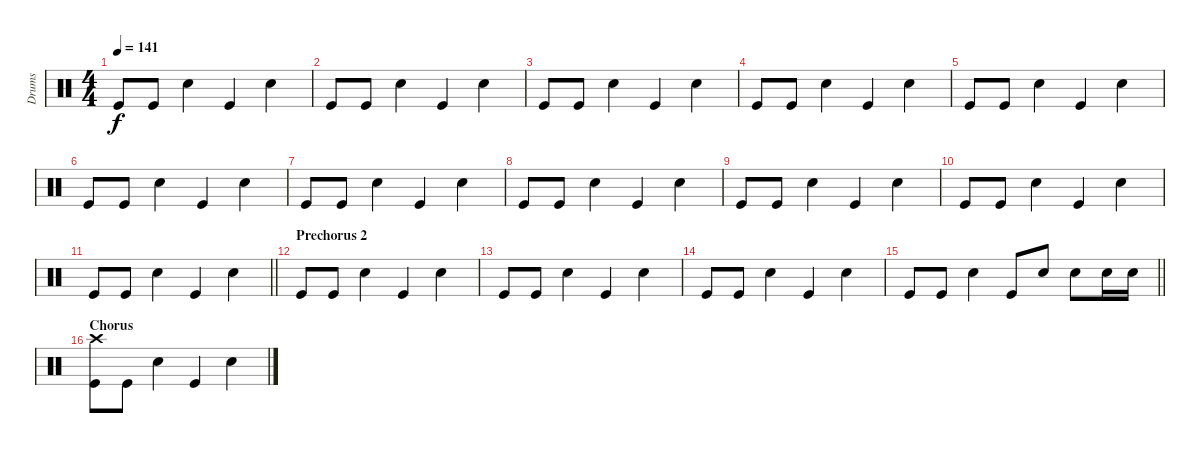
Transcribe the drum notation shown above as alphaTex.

\track ("Drums" "Drums") {instrument percussion}
\staff {score}
\articulation defaults
\ts (4 4)
\tempo 141
\clef neutral
\ks c "Kick (hit)".8{dy f} "Kick (hit)".8 "Snare (hit) 2".4 "Kick (hit)".4 "Snare (hit) 2".4
|
"Kick (hit)".8 "Kick (hit)".8 "Snare (hit) 2".4 "Kick (hit)".4 "Snare (hit) 2".4 |
"Kick (hit)".8 "Kick (hit)".8 "Snare (hit) 2".4 "Kick (hit)".4 "Snare (hit) 2".4 |
"Kick (hit)".8 "Kick (hit)".8 "Snare (hit) 2".4 "Kick (hit)".4 "Snare (hit) 2".4 |
"Kick (hit)".8 "Kick (hit)".8 "Snare (hit) 2".4 "Kick (hit)".4 "Snare (hit) 2".4 |
"Kick (hit)".8 "Kick (hit)".8 "Snare (hit) 2".4 "Kick (hit)".4 "Snare (hit) 2".4 |
"Kick (hit)".8 "Kick (hit)".8 "Snare (hit) 2".4 "Kick (hit)".4 "Snare (hit) 2".4 |
"Kick (hit)".8 "Kick (hit)".8 "Snare (hit) 2".4 "Kick (hit)".4 "Snare (hit) 2".4 |
"Kick (hit)".8 "Kick (hit)".8 "Snare (hit) 2".4 "Kick (hit)".4 "Snare (hit) 2".4 |
"Kick (hit)".8 "Kick (hit)".8 "Snare (hit) 2".4 "Kick (hit)".4 "Snare (hit) 2".4 |
\barLineRight lightlight "Kick (hit)".8 "Kick (hit)".8 "Snare (hit) 2".4 "Kick (hit)".4 "Snare (hit) 2".4
|
\section ("" "Prechorus 2")
"Kick (hit)".8 "Kick (hit)".8 "Snare (hit) 2".4 "Kick (hit)".4 "Snare (hit) 2".4 |
"Kick (hit)".8 "Kick (hit)".8 "Snare (hit) 2".4 "Kick (hit)".4 "Snare (hit) 2".4 |
"Kick (hit)".8 "Kick (hit)".8 "Snare (hit) 2".4 "Kick (hit)".4 "Snare (hit) 2".4 |
\barLineRight lightlight "Kick (hit)".8 "Kick (hit)".8 "Snare (hit) 2".4 "Kick (hit)".8 "Snare (hit) 2".8 "Snare (hit) 2".8 "Snare (hit) 2".16 "Snare (hit) 2".16
|
\section ("" "Chorus")
("Crash high (hit)" "Kick (hit)").8 "Kick (hit)".8 "Snare (hit) 2".4 "Kick (hit)".4 "Snare (hit) 2".4
